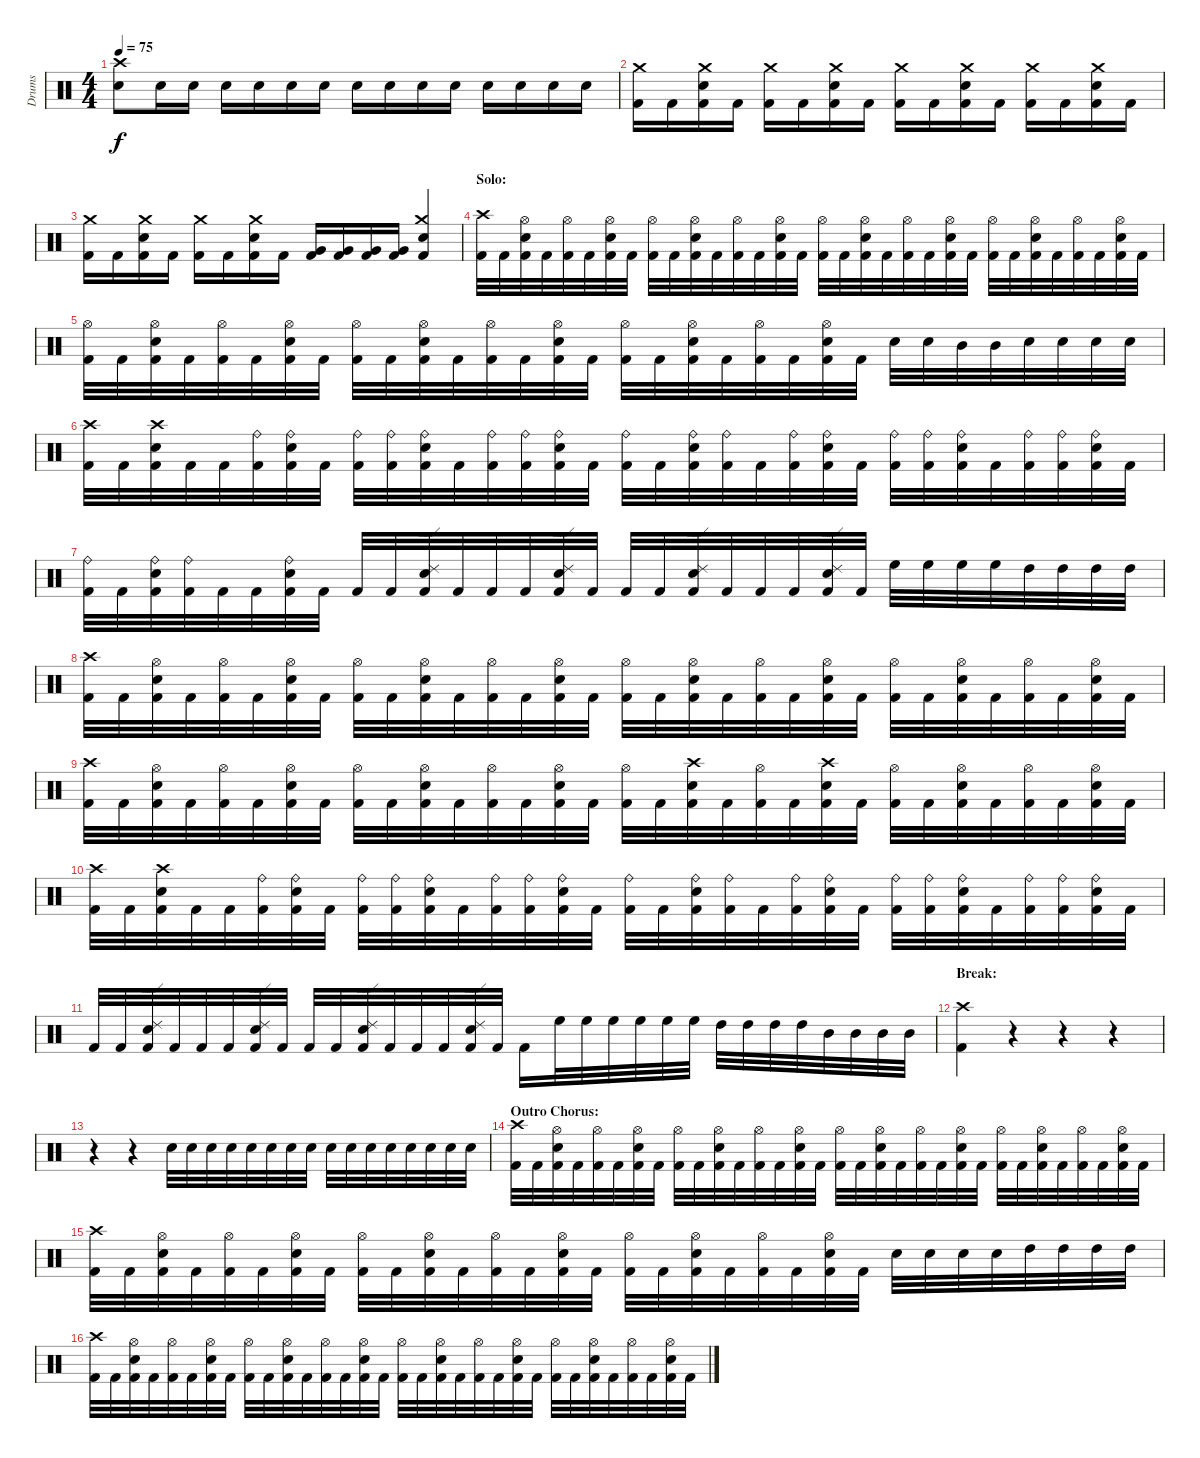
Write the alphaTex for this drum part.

\track ("Drums" "Drums") {instrument percussion}
\staff {score}
\articulation defaults
\ts (4 4)
\tempo 75
\clef neutral
\ks c
("Crash high (hit)" "Snare (hit) 2").8{dy f} "Snare (hit) 2".16 "Snare (hit) 2".16 "Snare (hit) 2".16 "Snare (hit) 2".16 "Snare (hit) 2".16 "Snare (hit) 2".16 "Snare (hit) 2".16 "Snare (hit) 2".16 "Snare (hit) 2".16 "Snare (hit) 2".16 "Snare (hit) 2".16 "Snare (hit) 2".16 "Snare (hit) 2".16 "Snare (hit) 2".16 |
("Crash medium (hit)" "Kick (hit) 2").16 "Kick (hit) 2".16 ("Crash medium (hit)" "Snare (hit) 2" "Kick (hit) 2").16 "Kick (hit) 2".16 ("Crash medium (hit)" "Kick (hit) 2").16 "Kick (hit) 2".16 ("Crash medium (hit)" "Snare (hit) 2" "Kick (hit) 2").16 "Kick (hit) 2".16 ("Crash medium (hit)" "Kick (hit) 2").16 "Kick (hit) 2".16 ("Crash medium (hit)" "Snare (hit) 2" "Kick (hit) 2").16 "Kick (hit) 2".16 ("Crash medium (hit)" "Kick (hit) 2").16 "Kick (hit) 2".16 ("Crash medium (hit)" "Snare (hit) 2" "Kick (hit) 2").16 "Kick (hit) 2".16 |
("Crash medium (hit)" "Kick (hit) 2").16 "Kick (hit) 2".16 ("Crash medium (hit)" "Snare (hit) 2" "Kick (hit) 2").16 "Kick (hit) 2".16 ("Crash medium (hit)" "Kick (hit) 2").16 "Kick (hit) 2".16 ("Crash medium (hit)" "Snare (hit) 2" "Kick (hit) 2").16 "Kick (hit) 2".16 ("Very Low Tom (hit)" "Kick (hit) 2").16 ("Very Low Tom (hit)" "Kick (hit) 2").16 ("Very Low Tom (hit)" "Kick (hit) 2").16 ("Very Low Tom (hit)" "Kick (hit) 2").16 ("Crash medium (hit)" "Snare (hit) 2" "Kick (hit) 2").4 |
\section ("" "Solo:")
("Crash high (hit)" "Kick (hit) 2").32 "Kick (hit) 2".32 ("Hi-Hat (open)" "Snare (hit) 2" "Kick (hit) 2").32 "Kick (hit) 2".32 ("Hi-Hat (open)" "Kick (hit) 2").32 "Kick (hit) 2".32 ("Hi-Hat (open)" "Snare (hit) 2" "Kick (hit) 2").32 "Kick (hit) 2".32 ("Hi-Hat (open)" "Kick (hit) 2").32 "Kick (hit) 2".32 ("Hi-Hat (open)" "Snare (hit) 2" "Kick (hit) 2").32 "Kick (hit) 2".32 ("Hi-Hat (open)" "Kick (hit) 2").32 "Kick (hit) 2".32 ("Hi-Hat (open)" "Snare (hit) 2" "Kick (hit) 2").32 "Kick (hit) 2".32 ("Hi-Hat (open)" "Kick (hit) 2").32 "Kick (hit) 2".32 ("Hi-Hat (open)" "Snare (hit) 2" "Kick (hit) 2").32 "Kick (hit) 2".32 ("Hi-Hat (open)" "Kick (hit) 2").32 "Kick (hit) 2".32 ("Hi-Hat (open)" "Snare (hit) 2" "Kick (hit) 2").32 "Kick (hit) 2".32 ("Hi-Hat (open)" "Kick (hit) 2").32 "Kick (hit) 2".32 ("Hi-Hat (open)" "Snare (hit) 2" "Kick (hit) 2").32 "Kick (hit) 2".32 ("Hi-Hat (open)" "Kick (hit) 2").32 "Kick (hit) 2".32 ("Hi-Hat (open)" "Snare (hit) 2" "Kick (hit) 2").32 "Kick (hit) 2".32 |
("Hi-Hat (open)" "Kick (hit) 2").32 "Kick (hit) 2".32 ("Hi-Hat (open)" "Snare (hit) 2" "Kick (hit) 2").32 "Kick (hit) 2".32 ("Hi-Hat (open)" "Kick (hit) 2").32 "Kick (hit) 2".32 ("Hi-Hat (open)" "Snare (hit) 2" "Kick (hit) 2").32 "Kick (hit) 2".32 ("Hi-Hat (open)" "Kick (hit) 2").32 "Kick (hit) 2".32 ("Hi-Hat (open)" "Snare (hit) 2" "Kick (hit) 2").32 "Kick (hit) 2".32 ("Hi-Hat (open)" "Kick (hit) 2").32 "Kick (hit) 2".32 ("Hi-Hat (open)" "Snare (hit) 2" "Kick (hit) 2").32 "Kick (hit) 2".32 ("Hi-Hat (open)" "Kick (hit) 2").32 "Kick (hit) 2".32 ("Hi-Hat (open)" "Snare (hit) 2" "Kick (hit) 2").32 "Kick (hit) 2".32 ("Hi-Hat (open)" "Kick (hit) 2").32 "Kick (hit) 2".32 ("Hi-Hat (open)" "Snare (hit) 2" "Kick (hit) 2").32 "Kick (hit) 2".32 "Snare (hit) 2".32 "Snare (hit) 2".32 "Mid Tom (hit)".32 "Mid Tom (hit)".32 "Snare (hit) 2".32 "Snare (hit) 2".32 "Snare (hit) 2".32 "Snare (hit) 2".32 |
("Crash high (hit)" "Kick (hit) 2").32 "Kick (hit) 2".32 ("Crash high (hit)" "Snare (hit) 2" "Kick (hit) 2").32 "Kick (hit) 2".32 "Kick (hit) 2".32 ("Ride (bell)" "Kick (hit) 2").32 ("Ride (bell)" "Snare (hit) 2" "Kick (hit) 2").32 "Kick (hit) 2".32 ("Ride (bell)" "Kick (hit) 2").32 ("Ride (bell)" "Kick (hit) 2").32 ("Ride (bell)" "Snare (hit) 2" "Kick (hit) 2").32 "Kick (hit) 2".32 ("Ride (bell)" "Kick (hit) 2").32 ("Ride (bell)" "Kick (hit) 2").32 ("Ride (bell)" "Snare (hit) 2" "Kick (hit) 2").32 "Kick (hit) 2".32 ("Ride (bell)" "Kick (hit) 2").32 "Kick (hit) 2".32 ("Ride (bell)" "Snare (hit) 2" "Kick (hit) 2").32 ("Ride (bell)" "Kick (hit) 2").32 "Kick (hit) 2".32 ("Ride (bell)" "Kick (hit) 2").32 ("Ride (bell)" "Snare (hit) 2" "Kick (hit) 2").32 "Kick (hit) 2".32 ("Ride (bell)" "Kick (hit) 2").32 ("Ride (bell)" "Kick (hit) 2").32 ("Ride (bell)" "Snare (hit) 2" "Kick (hit) 2").32 "Kick (hit) 2".32 ("Ride (bell)" "Kick (hit) 2").32 ("Ride (bell)" "Kick (hit) 2").32 ("Ride (bell)" "Snare (hit) 2" "Kick (hit) 2").32 "Kick (hit) 2".32 |
("Ride (bell)" "Kick (hit) 2").32 "Kick (hit) 2".32 ("Ride (bell)" "Snare (hit) 2" "Kick (hit) 2").32 ("Ride (bell)" "Kick (hit) 2").32 "Kick (hit) 2".32 "Kick (hit) 2".32 ("Ride (bell)" "Snare (hit) 2" "Kick (hit) 2").32 "Kick (hit) 2".32 "Kick (hit) 2".32 "Kick (hit) 2".32 ("Ride (edge) 2" "Snare (hit) 2" "Kick (hit) 2").32 "Kick (hit) 2".32 "Kick (hit) 2".32 "Kick (hit) 2".32 ("Ride (edge) 2" "Snare (hit) 2" "Kick (hit) 2").32 "Kick (hit) 2".32 "Kick (hit) 2".32 "Kick (hit) 2".32 ("Ride (edge) 2" "Snare (hit) 2" "Kick (hit) 2").32 "Kick (hit) 2".32 "Kick (hit) 2".32 "Kick (hit) 2".32 ("Ride (edge) 2" "Snare (hit) 2" "Kick (hit) 2").32 "Kick (hit) 2".32 "High Floor Tom (hit)".32 "High Floor Tom (hit)".32 "High Floor Tom (hit)".32 "High Floor Tom (hit)".32 "High Tom (hit)".32 "High Tom (hit)".32 "High Tom (hit)".32 "High Tom (hit)".32 |
("Crash high (hit)" "Kick (hit) 2").32 "Kick (hit) 2".32 ("Hi-Hat (open)" "Snare (hit) 2" "Kick (hit) 2").32 "Kick (hit) 2".32 ("Hi-Hat (open)" "Kick (hit) 2").32 "Kick (hit) 2".32 ("Hi-Hat (open)" "Snare (hit) 2" "Kick (hit) 2").32 "Kick (hit) 2".32 ("Hi-Hat (open)" "Kick (hit) 2").32 "Kick (hit) 2".32 ("Hi-Hat (open)" "Snare (hit) 2" "Kick (hit) 2").32 "Kick (hit) 2".32 ("Hi-Hat (open)" "Kick (hit) 2").32 "Kick (hit) 2".32 ("Hi-Hat (open)" "Snare (hit) 2" "Kick (hit) 2").32 "Kick (hit) 2".32 ("Hi-Hat (open)" "Kick (hit) 2").32 "Kick (hit) 2".32 ("Hi-Hat (open)" "Snare (hit) 2" "Kick (hit) 2").32 "Kick (hit) 2".32 ("Hi-Hat (open)" "Kick (hit) 2").32 "Kick (hit) 2".32 ("Hi-Hat (open)" "Snare (hit) 2" "Kick (hit) 2").32 "Kick (hit) 2".32 ("Hi-Hat (open)" "Kick (hit) 2").32 "Kick (hit) 2".32 ("Hi-Hat (open)" "Snare (hit) 2" "Kick (hit) 2").32 "Kick (hit) 2".32 ("Hi-Hat (open)" "Kick (hit) 2").32 "Kick (hit) 2".32 ("Hi-Hat (open)" "Snare (hit) 2" "Kick (hit) 2").32 "Kick (hit) 2".32 |
("Crash high (hit)" "Kick (hit) 2").32 "Kick (hit) 2".32 ("Hi-Hat (open)" "Snare (hit) 2" "Kick (hit) 2").32 "Kick (hit) 2".32 ("Hi-Hat (open)" "Kick (hit) 2").32 "Kick (hit) 2".32 ("Hi-Hat (open)" "Snare (hit) 2" "Kick (hit) 2").32 "Kick (hit) 2".32 ("Hi-Hat (open)" "Kick (hit) 2").32 "Kick (hit) 2".32 ("Hi-Hat (open)" "Snare (hit) 2" "Kick (hit) 2").32 "Kick (hit) 2".32 ("Hi-Hat (open)" "Kick (hit) 2").32 "Kick (hit) 2".32 ("Hi-Hat (open)" "Snare (hit) 2" "Kick (hit) 2").32 "Kick (hit) 2".32 ("Hi-Hat (open)" "Kick (hit) 2").32 "Kick (hit) 2".32 ("Crash high (hit)" "Snare (hit) 2" "Kick (hit) 2").32 "Kick (hit) 2".32 ("Hi-Hat (open)" "Kick (hit) 2").32 "Kick (hit) 2".32 ("Crash high (hit)" "Snare (hit) 2" "Kick (hit) 2").32 "Kick (hit) 2".32 ("Hi-Hat (open)" "Kick (hit) 2").32 "Kick (hit) 2".32 ("Hi-Hat (open)" "Snare (hit) 2" "Kick (hit) 2").32 "Kick (hit) 2".32 ("Hi-Hat (open)" "Kick (hit) 2").32 "Kick (hit) 2".32 ("Hi-Hat (open)" "Snare (hit) 2" "Kick (hit) 2").32 "Kick (hit) 2".32 |
("Crash high (hit)" "Kick (hit) 2").32 "Kick (hit) 2".32 ("Crash high (hit)" "Snare (hit) 2" "Kick (hit) 2").32 "Kick (hit) 2".32 "Kick (hit) 2".32 ("Ride (bell)" "Kick (hit) 2").32 ("Ride (bell)" "Snare (hit) 2" "Kick (hit) 2").32 "Kick (hit) 2".32 ("Ride (bell)" "Kick (hit) 2").32 ("Ride (bell)" "Kick (hit) 2").32 ("Ride (bell)" "Snare (hit) 2" "Kick (hit) 2").32 "Kick (hit) 2".32 ("Ride (bell)" "Kick (hit) 2").32 ("Ride (bell)" "Kick (hit) 2").32 ("Ride (bell)" "Snare (hit) 2" "Kick (hit) 2").32 "Kick (hit) 2".32 ("Ride (bell)" "Kick (hit) 2").32 "Kick (hit) 2".32 ("Ride (bell)" "Snare (hit) 2" "Kick (hit) 2").32 ("Ride (bell)" "Kick (hit) 2").32 "Kick (hit) 2".32 ("Ride (bell)" "Kick (hit) 2").32 ("Ride (bell)" "Snare (hit) 2" "Kick (hit) 2").32 "Kick (hit) 2".32 ("Ride (bell)" "Kick (hit) 2").32 ("Ride (bell)" "Kick (hit) 2").32 ("Ride (bell)" "Snare (hit) 2" "Kick (hit) 2").32 "Kick (hit) 2".32 ("Ride (bell)" "Kick (hit) 2").32 ("Ride (bell)" "Kick (hit) 2").32 ("Ride (bell)" "Snare (hit) 2" "Kick (hit) 2").32 "Kick (hit) 2".32 |
"Kick (hit) 2".32 "Kick (hit) 2".32 ("Ride (edge) 2" "Snare (hit) 2" "Kick (hit) 2").32 "Kick (hit) 2".32 "Kick (hit) 2".32 "Kick (hit) 2".32 ("Ride (edge) 2" "Snare (hit) 2" "Kick (hit) 2").32 "Kick (hit) 2".32 "Kick (hit) 2".32 "Kick (hit) 2".32 ("Ride (edge) 2" "Snare (hit) 2" "Kick (hit) 2").32 "Kick (hit) 2".32 "Kick (hit) 2".32 "Kick (hit) 2".32 ("Ride (edge) 2" "Snare (hit) 2" "Kick (hit) 2").32 "Kick (hit) 2".32 "Kick (hit) 2".16 "High Floor Tom (hit)".32 "High Floor Tom (hit)".32 "High Floor Tom (hit)".32 "High Floor Tom (hit)".32 "High Floor Tom (hit)".32 "High Floor Tom (hit)".32 "High Tom (hit)".32 "High Tom (hit)".32 "High Tom (hit)".32 "High Tom (hit)".32 "Mid Tom (hit)".32 "Mid Tom (hit)".32 "Mid Tom (hit)".32 "Mid Tom (hit)".32 |
\section ("" "Break:")
("Crash high (hit)" "Kick (hit) 2").4 r.4 r.4 r.4 |
r.4 r.4 "Snare (hit) 2".32 "Snare (hit) 2".32 "Snare (hit) 2".32 "Snare (hit) 2".32 "Snare (hit) 2".32 "Snare (hit) 2".32 "Snare (hit) 2".32 "Snare (hit) 2".32 "Snare (hit) 2".32 "Snare (hit) 2".32 "Snare (hit) 2".32 "Snare (hit) 2".32 "Snare (hit) 2".32 "Snare (hit) 2".32 "Snare (hit) 2".32 "Snare (hit) 2".32 |
\section ("" "Outro Chorus:")
("Crash high (hit)" "Kick (hit) 2").32 "Kick (hit) 2".32 ("Hi-Hat (open)" "Snare (hit) 2" "Kick (hit) 2").32 "Kick (hit) 2".32 ("Hi-Hat (open)" "Kick (hit) 2").32 "Kick (hit) 2".32 ("Hi-Hat (open)" "Snare (hit) 2" "Kick (hit) 2").32 "Kick (hit) 2".32 ("Hi-Hat (open)" "Kick (hit) 2").32 "Kick (hit) 2".32 ("Hi-Hat (open)" "Snare (hit) 2" "Kick (hit) 2").32 "Kick (hit) 2".32 ("Hi-Hat (open)" "Kick (hit) 2").32 "Kick (hit) 2".32 ("Hi-Hat (open)" "Snare (hit) 2" "Kick (hit) 2").32 "Kick (hit) 2".32 ("Hi-Hat (open)" "Kick (hit) 2").32 "Kick (hit) 2".32 ("Hi-Hat (open)" "Snare (hit) 2" "Kick (hit) 2").32 "Kick (hit) 2".32 ("Hi-Hat (open)" "Kick (hit) 2").32 "Kick (hit) 2".32 ("Hi-Hat (open)" "Snare (hit) 2" "Kick (hit) 2").32 "Kick (hit) 2".32 ("Hi-Hat (open)" "Kick (hit) 2").32 "Kick (hit) 2".32 ("Hi-Hat (open)" "Snare (hit) 2" "Kick (hit) 2").32 "Kick (hit) 2".32 ("Hi-Hat (open)" "Kick (hit) 2").32 "Kick (hit) 2".32 ("Hi-Hat (open)" "Snare (hit) 2" "Kick (hit) 2").32 "Kick (hit) 2".32 |
("Crash high (hit)" "Kick (hit) 2").32 "Kick (hit) 2".32 ("Hi-Hat (open)" "Snare (hit) 2" "Kick (hit) 2").32 "Kick (hit) 2".32 ("Hi-Hat (open)" "Kick (hit) 2").32 "Kick (hit) 2".32 ("Hi-Hat (open)" "Snare (hit) 2" "Kick (hit) 2").32 "Kick (hit) 2".32 ("Hi-Hat (open)" "Kick (hit) 2").32 "Kick (hit) 2".32 ("Hi-Hat (open)" "Snare (hit) 2" "Kick (hit) 2").32 "Kick (hit) 2".32 ("Hi-Hat (open)" "Kick (hit) 2").32 "Kick (hit) 2".32 ("Hi-Hat (open)" "Snare (hit) 2" "Kick (hit) 2").32 "Kick (hit) 2".32 ("Hi-Hat (open)" "Kick (hit) 2").32 "Kick (hit) 2".32 ("Hi-Hat (open)" "Snare (hit) 2" "Kick (hit) 2").32 "Kick (hit) 2".32 ("Hi-Hat (open)" "Kick (hit) 2").32 "Kick (hit) 2".32 ("Hi-Hat (open)" "Snare (hit) 2" "Kick (hit) 2").32 "Kick (hit) 2".32 "Snare (hit) 2".32 "Snare (hit) 2".32 "Snare (hit) 2".32 "Snare (hit) 2".32 "High Tom (hit)".32 "High Tom (hit)".32 "High Tom (hit)".32 "High Tom (hit)".32 |
("Crash high (hit)" "Kick (hit) 2").32 "Kick (hit) 2".32 ("Hi-Hat (open)" "Snare (hit) 2" "Kick (hit) 2").32 "Kick (hit) 2".32 ("Hi-Hat (open)" "Kick (hit) 2").32 "Kick (hit) 2".32 ("Hi-Hat (open)" "Snare (hit) 2" "Kick (hit) 2").32 "Kick (hit) 2".32 ("Hi-Hat (open)" "Kick (hit) 2").32 "Kick (hit) 2".32 ("Hi-Hat (open)" "Snare (hit) 2" "Kick (hit) 2").32 "Kick (hit) 2".32 ("Hi-Hat (open)" "Kick (hit) 2").32 "Kick (hit) 2".32 ("Hi-Hat (open)" "Snare (hit) 2" "Kick (hit) 2").32 "Kick (hit) 2".32 ("Hi-Hat (open)" "Kick (hit) 2").32 "Kick (hit) 2".32 ("Hi-Hat (open)" "Snare (hit) 2" "Kick (hit) 2").32 "Kick (hit) 2".32 ("Hi-Hat (open)" "Kick (hit) 2").32 "Kick (hit) 2".32 ("Hi-Hat (open)" "Snare (hit) 2" "Kick (hit) 2").32 "Kick (hit) 2".32 ("Hi-Hat (open)" "Kick (hit) 2").32 "Kick (hit) 2".32 ("Hi-Hat (open)" "Snare (hit) 2" "Kick (hit) 2").32 "Kick (hit) 2".32 ("Hi-Hat (open)" "Kick (hit) 2").32 "Kick (hit) 2".32 ("Hi-Hat (open)" "Snare (hit) 2" "Kick (hit) 2").32 "Kick (hit) 2".32
